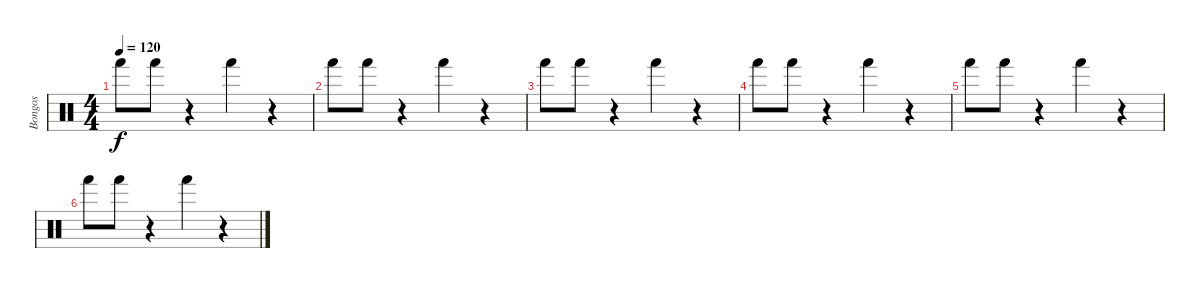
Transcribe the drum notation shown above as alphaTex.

\track ("Bongos" "Bongos") {instrument percussion}
\staff {score}
\articulation defaults
\ts (4 4)
\tempo 120
\clef neutral
\ks c "Hand (hit)".8{dy f} "Hand (hit)".8
r.4 "Hand (hit)".4 r.4 |
"Hand (hit)".8 "Hand (hit)".8 r.4 "Hand (hit)".4 r.4 |
"Hand (hit)".8 "Hand (hit)".8 r.4 "Hand (hit)".4 r.4 |
"Hand (hit)".8 "Hand (hit)".8 r.4 "Hand (hit)".4 r.4 |
"Hand (hit)".8 "Hand (hit)".8 r.4 "Hand (hit)".4 r.4 |
"Hand (hit)".8 "Hand (hit)".8 r.4 "Hand (hit)".4 r.4
